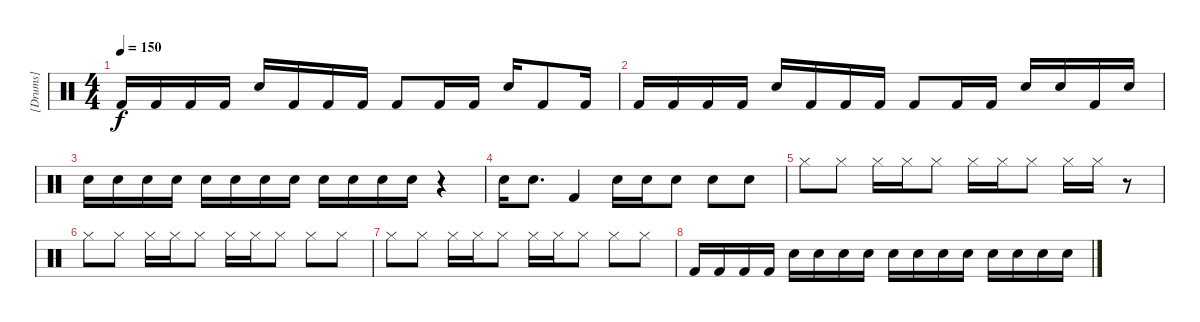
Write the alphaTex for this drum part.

\track ("[Drums]" "[Drums]") {instrument percussion}
\staff {score}
\articulation defaults
\ts (4 4)
\tempo 150
\clef neutral
\ks c "Kick (hit) 2".16{dy f} "Kick (hit) 2".16 "Kick (hit) 2".16 "Kick (hit) 2".16 "Electric Snare (hit)".16 "Kick (hit) 2".16 "Kick (hit) 2".16 "Kick (hit) 2".16 "Kick (hit) 2".8 "Kick (hit) 2".16 "Kick (hit) 2".16 "Electric Snare (hit)".16 "Kick (hit) 2".8 "Kick (hit) 2".16
|
"Kick (hit) 2".16 "Kick (hit) 2".16 "Kick (hit) 2".16 "Kick (hit) 2".16 "Electric Snare (hit)".16 "Kick (hit) 2".16 "Kick (hit) 2".16 "Kick (hit) 2".16 "Kick (hit) 2".8 "Kick (hit) 2".16 "Kick (hit) 2".16 "Electric Snare (hit)".16 "Electric Snare (hit)".16 "Kick (hit) 2".16 "Electric Snare (hit)".16 |
"Electric Snare (hit)".16 "Electric Snare (hit)".16 "Electric Snare (hit)".16 "Electric Snare (hit)".16 "Electric Snare (hit)".16 "Electric Snare (hit)".16 "Electric Snare (hit)".16 "Electric Snare (hit)".16 "Electric Snare (hit)".16 "Electric Snare (hit)".16 "Electric Snare (hit)".16 "Electric Snare (hit)".16 r.4 |
"Electric Snare (hit)".16 "Electric Snare (hit)".8{d} "Kick (hit) 2".4 "Electric Snare (hit)".16 "Electric Snare (hit)".16 "Electric Snare (hit)".8 "Electric Snare (hit)".8 "Electric Snare (hit)".8 |
"Hi-Hat (closed)".8 "Hi-Hat (closed)".8 "Hi-Hat (closed)".16 "Hi-Hat (closed)".16 "Hi-Hat (closed)".8 "Hi-Hat (closed)".16 "Hi-Hat (closed)".16 "Hi-Hat (closed)".8 "Hi-Hat (closed)".16 "Hi-Hat (closed)".16 r.8 |
"Hi-Hat (closed)".8 "Hi-Hat (closed)".8 "Hi-Hat (closed)".16 "Hi-Hat (closed)".16 "Hi-Hat (closed)".8 "Hi-Hat (closed)".16 "Hi-Hat (closed)".16 "Hi-Hat (closed)".8 "Hi-Hat (closed)".8 "Hi-Hat (closed)".8 |
"Hi-Hat (closed)".8 "Hi-Hat (closed)".8 "Hi-Hat (closed)".16 "Hi-Hat (closed)".16 "Hi-Hat (closed)".8 "Hi-Hat (closed)".16 "Hi-Hat (closed)".16 "Hi-Hat (closed)".8 "Hi-Hat (closed)".8 "Hi-Hat (closed)".8 |
"Kick (hit) 2".16 "Kick (hit) 2".16 "Kick (hit) 2".16 "Kick (hit) 2".16 "Electric Snare (hit)".16 "Electric Snare (hit)".16 "Electric Snare (hit)".16 "Electric Snare (hit)".16 "Electric Snare (hit)".16 "Electric Snare (hit)".16 "Electric Snare (hit)".16 "Electric Snare (hit)".16 "Electric Snare (hit)".16 "Electric Snare (hit)".16 "Electric Snare (hit)".16 "Electric Snare (hit)".16
